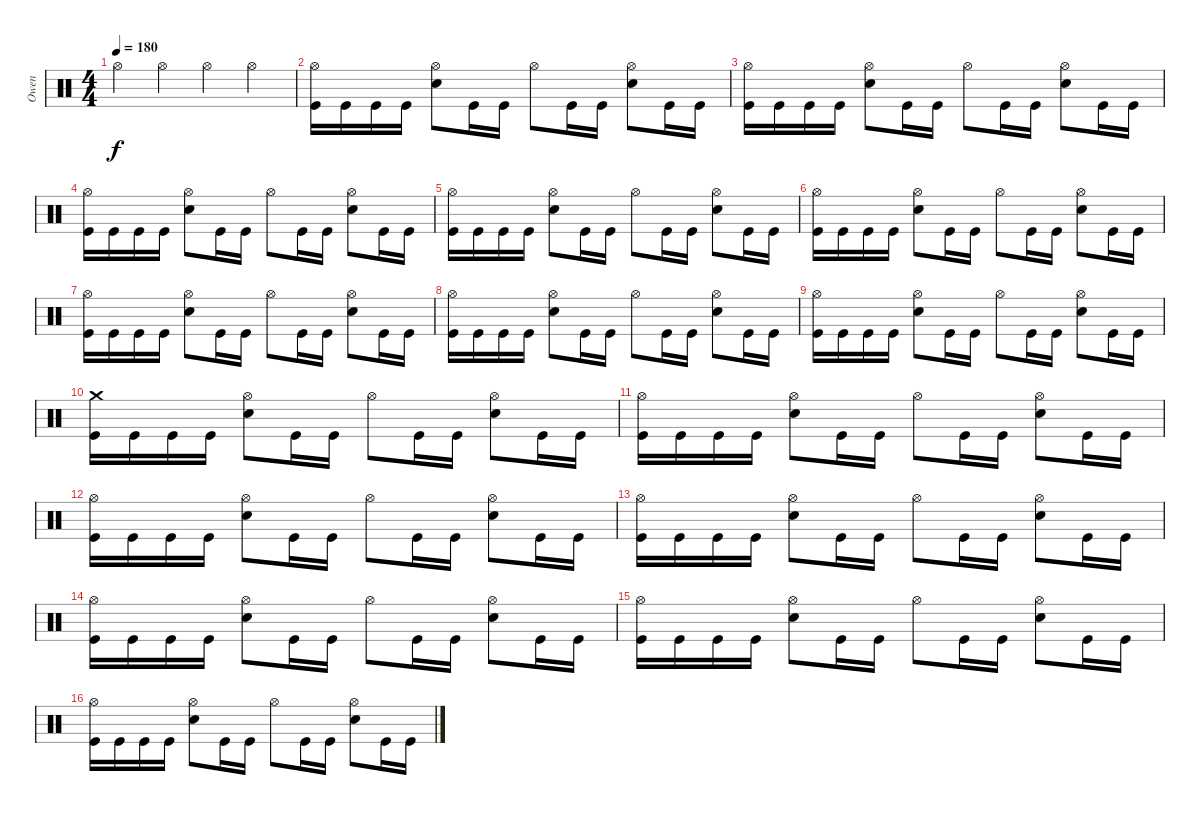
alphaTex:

\track ("Owen" "Owen") {instrument percussion}
\staff {score}
\articulation defaults
\ts (4 4)
\tempo 180
\clef neutral
\ks c "Hi-Hat (open)".4{dy f} "Hi-Hat (open)".4 "Hi-Hat (open)".4 "Hi-Hat (open)".4
|
("Hi-Hat (open)" "Kick (hit)").16 "Kick (hit)".16 "Kick (hit)".16 "Kick (hit)".16 ("Hi-Hat (open)" "Snare (hit) 2").8 "Kick (hit)".16 "Kick (hit)".16 "Hi-Hat (open)".8 "Kick (hit)".16 "Kick (hit)".16 ("Hi-Hat (open)" "Snare (hit) 2").8 "Kick (hit)".16 "Kick (hit)".16 |
("Hi-Hat (open)" "Kick (hit)").16 "Kick (hit)".16 "Kick (hit)".16 "Kick (hit)".16 ("Hi-Hat (open)" "Snare (hit) 2").8 "Kick (hit)".16 "Kick (hit)".16 "Hi-Hat (open)".8 "Kick (hit)".16 "Kick (hit)".16 ("Hi-Hat (open)" "Snare (hit) 2").8 "Kick (hit)".16 "Kick (hit)".16 |
("Hi-Hat (open)" "Kick (hit)").16 "Kick (hit)".16 "Kick (hit)".16 "Kick (hit)".16 ("Hi-Hat (open)" "Snare (hit) 2").8 "Kick (hit)".16 "Kick (hit)".16 "Hi-Hat (open)".8 "Kick (hit)".16 "Kick (hit)".16 ("Hi-Hat (open)" "Snare (hit) 2").8 "Kick (hit)".16 "Kick (hit)".16 |
("Hi-Hat (open)" "Kick (hit)").16 "Kick (hit)".16 "Kick (hit)".16 "Kick (hit)".16 ("Hi-Hat (open)" "Snare (hit) 2").8 "Kick (hit)".16 "Kick (hit)".16 "Hi-Hat (open)".8 "Kick (hit)".16 "Kick (hit)".16 ("Hi-Hat (open)" "Snare (hit) 2").8 "Kick (hit)".16 "Kick (hit)".16 |
("Hi-Hat (open)" "Kick (hit)").16 "Kick (hit)".16 "Kick (hit)".16 "Kick (hit)".16 ("Hi-Hat (open)" "Snare (hit) 2").8 "Kick (hit)".16 "Kick (hit)".16 "Hi-Hat (open)".8 "Kick (hit)".16 "Kick (hit)".16 ("Hi-Hat (open)" "Snare (hit) 2").8 "Kick (hit)".16 "Kick (hit)".16 |
("Hi-Hat (open)" "Kick (hit)").16 "Kick (hit)".16 "Kick (hit)".16 "Kick (hit)".16 ("Hi-Hat (open)" "Snare (hit) 2").8 "Kick (hit)".16 "Kick (hit)".16 "Hi-Hat (open)".8 "Kick (hit)".16 "Kick (hit)".16 ("Hi-Hat (open)" "Snare (hit) 2").8 "Kick (hit)".16 "Kick (hit)".16 |
("Hi-Hat (open)" "Kick (hit)").16 "Kick (hit)".16 "Kick (hit)".16 "Kick (hit)".16 ("Hi-Hat (open)" "Snare (hit) 2").8 "Kick (hit)".16 "Kick (hit)".16 "Hi-Hat (open)".8 "Kick (hit)".16 "Kick (hit)".16 ("Hi-Hat (open)" "Snare (hit) 2").8 "Kick (hit)".16 "Kick (hit)".16 |
("Hi-Hat (open)" "Kick (hit)").16 "Kick (hit)".16 "Kick (hit)".16 "Kick (hit)".16 ("Hi-Hat (open)" "Snare (hit) 2").8 "Kick (hit)".16 "Kick (hit)".16 "Hi-Hat (open)".8 "Kick (hit)".16 "Kick (hit)".16 ("Hi-Hat (open)" "Snare (hit) 2").8 "Kick (hit)".16 "Kick (hit)".16 |
("Crash medium (hit)" "Kick (hit)").16 "Kick (hit)".16 "Kick (hit)".16 "Kick (hit)".16 ("Hi-Hat (open)" "Snare (hit) 2").8 "Kick (hit)".16 "Kick (hit)".16 "Hi-Hat (open)".8 "Kick (hit)".16 "Kick (hit)".16 ("Hi-Hat (open)" "Snare (hit) 2").8 "Kick (hit)".16 "Kick (hit)".16 |
("Hi-Hat (open)" "Kick (hit)").16 "Kick (hit)".16 "Kick (hit)".16 "Kick (hit)".16 ("Hi-Hat (open)" "Snare (hit) 2").8 "Kick (hit)".16 "Kick (hit)".16 "Hi-Hat (open)".8 "Kick (hit)".16 "Kick (hit)".16 ("Hi-Hat (open)" "Snare (hit) 2").8 "Kick (hit)".16 "Kick (hit)".16 |
("Hi-Hat (open)" "Kick (hit)").16 "Kick (hit)".16 "Kick (hit)".16 "Kick (hit)".16 ("Hi-Hat (open)" "Snare (hit) 2").8 "Kick (hit)".16 "Kick (hit)".16 "Hi-Hat (open)".8 "Kick (hit)".16 "Kick (hit)".16 ("Hi-Hat (open)" "Snare (hit) 2").8 "Kick (hit)".16 "Kick (hit)".16 |
("Hi-Hat (open)" "Kick (hit)").16 "Kick (hit)".16 "Kick (hit)".16 "Kick (hit)".16 ("Hi-Hat (open)" "Snare (hit) 2").8 "Kick (hit)".16 "Kick (hit)".16 "Hi-Hat (open)".8 "Kick (hit)".16 "Kick (hit)".16 ("Hi-Hat (open)" "Snare (hit) 2").8 "Kick (hit)".16 "Kick (hit)".16 |
("Hi-Hat (open)" "Kick (hit)").16 "Kick (hit)".16 "Kick (hit)".16 "Kick (hit)".16 ("Hi-Hat (open)" "Snare (hit) 2").8 "Kick (hit)".16 "Kick (hit)".16 "Hi-Hat (open)".8 "Kick (hit)".16 "Kick (hit)".16 ("Hi-Hat (open)" "Snare (hit) 2").8 "Kick (hit)".16 "Kick (hit)".16 |
("Hi-Hat (open)" "Kick (hit)").16 "Kick (hit)".16 "Kick (hit)".16 "Kick (hit)".16 ("Hi-Hat (open)" "Snare (hit) 2").8 "Kick (hit)".16 "Kick (hit)".16 "Hi-Hat (open)".8 "Kick (hit)".16 "Kick (hit)".16 ("Hi-Hat (open)" "Snare (hit) 2").8 "Kick (hit)".16 "Kick (hit)".16 |
("Hi-Hat (open)" "Kick (hit)").16 "Kick (hit)".16 "Kick (hit)".16 "Kick (hit)".16 ("Hi-Hat (open)" "Snare (hit) 2").8 "Kick (hit)".16 "Kick (hit)".16 "Hi-Hat (open)".8 "Kick (hit)".16 "Kick (hit)".16 ("Hi-Hat (open)" "Snare (hit) 2").8 "Kick (hit)".16 "Kick (hit)".16
